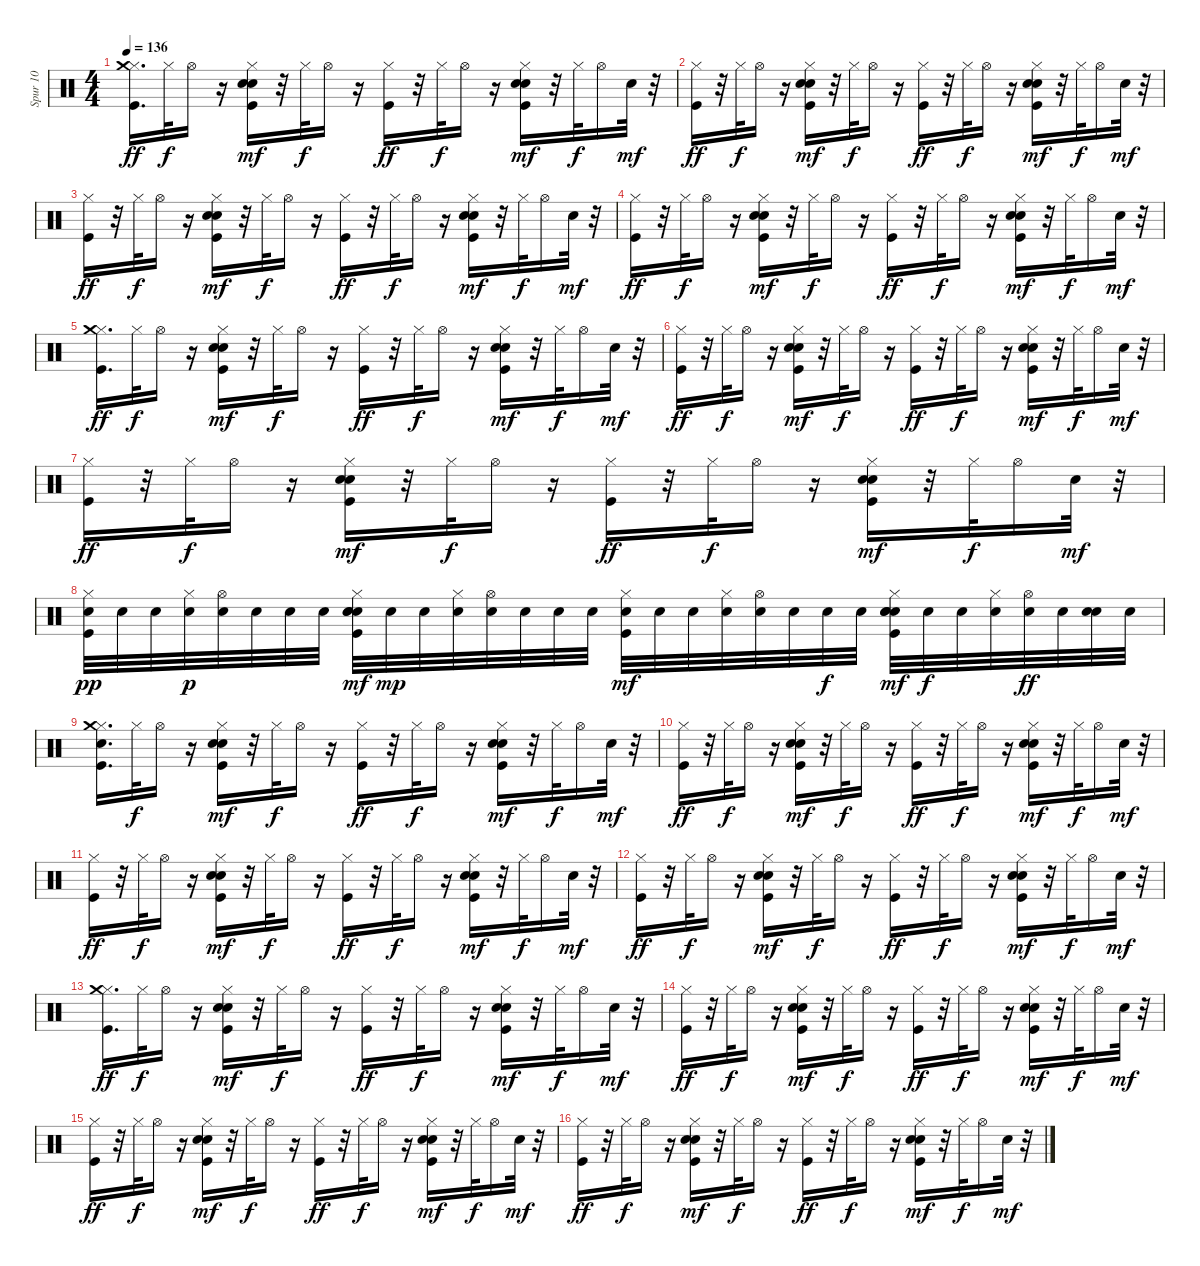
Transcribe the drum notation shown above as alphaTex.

\track ("Spur 10" "Spur 10") {instrument percussion}
\staff {score}
\articulation defaults
\ts (4 4)
\tempo 136
\clef neutral
\ks c
("Kick (hit)" "Hi-Hat (closed)" "Crash medium (hit)").16{d dy ff} "Hi-Hat (closed)".32{dy f} "Hi-Hat (open)".16 r.16 ("Kick (hit)" "Snare (hit) 2" "Hi-Hat (closed)" "Hand Clap (hit)").16{dy mf} r.32 "Hi-Hat (closed)".32{dy f} "Hi-Hat (open)".16 r.16 ("Kick (hit)" "Hi-Hat (closed)").16{dy ff} r.32 "Hi-Hat (closed)".32{dy f} "Hi-Hat (open)".16 r.16 ("Kick (hit)" "Snare (hit) 2" "Hi-Hat (closed)" "Hand Clap (hit)").16{dy mf} r.32 "Hi-Hat (closed)".32{dy f} "Hi-Hat (open)".16 "Snare (hit) 2".32{dy mf} r.32 |
("Kick (hit)" "Hi-Hat (closed)").16{dy ff} r.32 "Hi-Hat (closed)".32{dy f} "Hi-Hat (open)".16 r.16 ("Kick (hit)" "Snare (hit) 2" "Hi-Hat (closed)" "Hand Clap (hit)").16{dy mf} r.32 "Hi-Hat (closed)".32{dy f} "Hi-Hat (open)".16 r.16 ("Kick (hit)" "Hi-Hat (closed)").16{dy ff} r.32 "Hi-Hat (closed)".32{dy f} "Hi-Hat (open)".16 r.16 ("Kick (hit)" "Snare (hit) 2" "Hi-Hat (closed)" "Hand Clap (hit)").16{dy mf} r.32 "Hi-Hat (closed)".32{dy f} "Hi-Hat (open)".16 "Snare (hit) 2".32{dy mf} r.32 |
("Kick (hit)" "Hi-Hat (closed)").16{dy ff} r.32 "Hi-Hat (closed)".32{dy f} "Hi-Hat (open)".16 r.16 ("Kick (hit)" "Snare (hit) 2" "Hi-Hat (closed)" "Hand Clap (hit)").16{dy mf} r.32 "Hi-Hat (closed)".32{dy f} "Hi-Hat (open)".16 r.16 ("Kick (hit)" "Hi-Hat (closed)").16{dy ff} r.32 "Hi-Hat (closed)".32{dy f} "Hi-Hat (open)".16 r.16 ("Kick (hit)" "Snare (hit) 2" "Hi-Hat (closed)" "Hand Clap (hit)").16{dy mf} r.32 "Hi-Hat (closed)".32{dy f} "Hi-Hat (open)".16 "Snare (hit) 2".32{dy mf} r.32 |
("Kick (hit)" "Hi-Hat (closed)").16{dy ff} r.32 "Hi-Hat (closed)".32{dy f} "Hi-Hat (open)".16 r.16 ("Kick (hit)" "Snare (hit) 2" "Hi-Hat (closed)" "Hand Clap (hit)").16{dy mf} r.32 "Hi-Hat (closed)".32{dy f} "Hi-Hat (open)".16 r.16 ("Kick (hit)" "Hi-Hat (closed)").16{dy ff} r.32 "Hi-Hat (closed)".32{dy f} "Hi-Hat (open)".16 r.16 ("Kick (hit)" "Snare (hit) 2" "Hi-Hat (closed)" "Hand Clap (hit)").16{dy mf} r.32 "Hi-Hat (closed)".32{dy f} "Hi-Hat (open)".16 "Snare (hit) 2".32{dy mf} r.32 |
("Kick (hit)" "Hi-Hat (closed)" "Crash medium (hit)").16{d dy ff} "Hi-Hat (closed)".32{dy f} "Hi-Hat (open)".16 r.16 ("Kick (hit)" "Snare (hit) 2" "Hi-Hat (closed)" "Hand Clap (hit)").16{dy mf} r.32 "Hi-Hat (closed)".32{dy f} "Hi-Hat (open)".16 r.16 ("Kick (hit)" "Hi-Hat (closed)").16{dy ff} r.32 "Hi-Hat (closed)".32{dy f} "Hi-Hat (open)".16 r.16 ("Kick (hit)" "Snare (hit) 2" "Hi-Hat (closed)" "Hand Clap (hit)").16{dy mf} r.32 "Hi-Hat (closed)".32{dy f} "Hi-Hat (open)".16 "Snare (hit) 2".32{dy mf} r.32 |
("Kick (hit)" "Hi-Hat (closed)").16{dy ff} r.32 "Hi-Hat (closed)".32{dy f} "Hi-Hat (open)".16 r.16 ("Kick (hit)" "Snare (hit) 2" "Hi-Hat (closed)" "Hand Clap (hit)").16{dy mf} r.32 "Hi-Hat (closed)".32{dy f} "Hi-Hat (open)".16 r.16 ("Kick (hit)" "Hi-Hat (closed)").16{dy ff} r.32 "Hi-Hat (closed)".32{dy f} "Hi-Hat (open)".16 r.16 ("Kick (hit)" "Snare (hit) 2" "Hi-Hat (closed)" "Hand Clap (hit)").16{dy mf} r.32 "Hi-Hat (closed)".32{dy f} "Hi-Hat (open)".16 "Snare (hit) 2".32{dy mf} r.32 |
("Kick (hit)" "Hi-Hat (closed)").16{dy ff} r.32 "Hi-Hat (closed)".32{dy f} "Hi-Hat (open)".16 r.16 ("Kick (hit)" "Snare (hit) 2" "Hi-Hat (closed)" "Hand Clap (hit)").16{dy mf} r.32 "Hi-Hat (closed)".32{dy f} "Hi-Hat (open)".16 r.16 ("Kick (hit)" "Hi-Hat (closed)").16{dy ff} r.32 "Hi-Hat (closed)".32{dy f} "Hi-Hat (open)".16 r.16 ("Kick (hit)" "Snare (hit) 2" "Hi-Hat (closed)" "Hand Clap (hit)").16{dy mf} r.32 "Hi-Hat (closed)".32{dy f} "Hi-Hat (open)".16 "Snare (hit) 2".32{dy mf} r.32 |
("Kick (hit)" "Hi-Hat (closed)" "Snare (hit) 2").32{dy pp} "Snare (hit) 2".32 "Snare (hit) 2".32 ("Hi-Hat (closed)" "Snare (hit) 2").32{dy p} ("Hi-Hat (open)" "Snare (hit) 2").32 "Snare (hit) 2".32 "Snare (hit) 2".32 "Snare (hit) 2".32 ("Kick (hit)" "Snare (hit) 2" "Hi-Hat (closed)" "Snare (hit) 2" "Hand Clap (hit)").32{dy mf} "Snare (hit) 2".32{dy mp} "Snare (hit) 2".32 ("Hi-Hat (closed)" "Snare (hit) 2").32 ("Hi-Hat (open)" "Snare (hit) 2").32 "Snare (hit) 2".32 "Snare (hit) 2".32 "Snare (hit) 2".32 ("Kick (hit)" "Hi-Hat (closed)" "Snare (hit) 2").32{dy mf} "Snare (hit) 2".32 "Snare (hit) 2".32 ("Hi-Hat (closed)" "Snare (hit) 2").32 ("Hi-Hat (open)" "Snare (hit) 2").32 "Snare (hit) 2".32 "Snare (hit) 2".32{dy f} "Snare (hit) 2".32 ("Kick (hit)" "Snare (hit) 2" "Hi-Hat (closed)" "Snare (hit) 2" "Hand Clap (hit)").32{dy mf} "Snare (hit) 2".32{dy f} "Snare (hit) 2".32 ("Hi-Hat (closed)" "Snare (hit) 2").32 ("Hi-Hat (open)" "Snare (hit) 2").32{dy ff} "Snare (hit) 2".32 ("Snare (hit) 2" "Snare (hit) 2").32 "Snare (hit) 2".32 |
("Kick (hit)" "Hi-Hat (closed)" "Crash medium (hit)" "Snare (hit) 2").16{d} "Hi-Hat (closed)".32{dy f} "Hi-Hat (open)".16 r.16 ("Kick (hit)" "Snare (hit) 2" "Hi-Hat (closed)" "Hand Clap (hit)").16{dy mf} r.32 "Hi-Hat (closed)".32{dy f} "Hi-Hat (open)".16 r.16 ("Kick (hit)" "Hi-Hat (closed)").16{dy ff} r.32 "Hi-Hat (closed)".32{dy f} "Hi-Hat (open)".16 r.16 ("Kick (hit)" "Snare (hit) 2" "Hi-Hat (closed)" "Hand Clap (hit)").16{dy mf} r.32 "Hi-Hat (closed)".32{dy f} "Hi-Hat (open)".16 "Snare (hit) 2".32{dy mf} r.32 |
("Kick (hit)" "Hi-Hat (closed)").16{dy ff} r.32 "Hi-Hat (closed)".32{dy f} "Hi-Hat (open)".16 r.16 ("Kick (hit)" "Snare (hit) 2" "Hi-Hat (closed)" "Hand Clap (hit)").16{dy mf} r.32 "Hi-Hat (closed)".32{dy f} "Hi-Hat (open)".16 r.16 ("Kick (hit)" "Hi-Hat (closed)").16{dy ff} r.32 "Hi-Hat (closed)".32{dy f} "Hi-Hat (open)".16 r.16 ("Kick (hit)" "Snare (hit) 2" "Hi-Hat (closed)" "Hand Clap (hit)").16{dy mf} r.32 "Hi-Hat (closed)".32{dy f} "Hi-Hat (open)".16 "Snare (hit) 2".32{dy mf} r.32 |
("Kick (hit)" "Hi-Hat (closed)").16{dy ff} r.32 "Hi-Hat (closed)".32{dy f} "Hi-Hat (open)".16 r.16 ("Kick (hit)" "Snare (hit) 2" "Hi-Hat (closed)" "Hand Clap (hit)").16{dy mf} r.32 "Hi-Hat (closed)".32{dy f} "Hi-Hat (open)".16 r.16 ("Kick (hit)" "Hi-Hat (closed)").16{dy ff} r.32 "Hi-Hat (closed)".32{dy f} "Hi-Hat (open)".16 r.16 ("Kick (hit)" "Snare (hit) 2" "Hi-Hat (closed)" "Hand Clap (hit)").16{dy mf} r.32 "Hi-Hat (closed)".32{dy f} "Hi-Hat (open)".16 "Snare (hit) 2".32{dy mf} r.32 |
("Kick (hit)" "Hi-Hat (closed)").16{dy ff} r.32 "Hi-Hat (closed)".32{dy f} "Hi-Hat (open)".16 r.16 ("Kick (hit)" "Snare (hit) 2" "Hi-Hat (closed)" "Hand Clap (hit)").16{dy mf} r.32 "Hi-Hat (closed)".32{dy f} "Hi-Hat (open)".16 r.16 ("Kick (hit)" "Hi-Hat (closed)").16{dy ff} r.32 "Hi-Hat (closed)".32{dy f} "Hi-Hat (open)".16 r.16 ("Kick (hit)" "Snare (hit) 2" "Hi-Hat (closed)" "Hand Clap (hit)").16{dy mf} r.32 "Hi-Hat (closed)".32{dy f} "Hi-Hat (open)".16 "Snare (hit) 2".32{dy mf} r.32 |
("Kick (hit)" "Hi-Hat (closed)" "Crash medium (hit)").16{d dy ff} "Hi-Hat (closed)".32{dy f} "Hi-Hat (open)".16 r.16 ("Kick (hit)" "Snare (hit) 2" "Hi-Hat (closed)" "Hand Clap (hit)").16{dy mf} r.32 "Hi-Hat (closed)".32{dy f} "Hi-Hat (open)".16 r.16 ("Kick (hit)" "Hi-Hat (closed)").16{dy ff} r.32 "Hi-Hat (closed)".32{dy f} "Hi-Hat (open)".16 r.16 ("Kick (hit)" "Snare (hit) 2" "Hi-Hat (closed)" "Hand Clap (hit)").16{dy mf} r.32 "Hi-Hat (closed)".32{dy f} "Hi-Hat (open)".16 "Snare (hit) 2".32{dy mf} r.32 |
("Kick (hit)" "Hi-Hat (closed)").16{dy ff} r.32 "Hi-Hat (closed)".32{dy f} "Hi-Hat (open)".16 r.16 ("Kick (hit)" "Snare (hit) 2" "Hi-Hat (closed)" "Hand Clap (hit)").16{dy mf} r.32 "Hi-Hat (closed)".32{dy f} "Hi-Hat (open)".16 r.16 ("Kick (hit)" "Hi-Hat (closed)").16{dy ff} r.32 "Hi-Hat (closed)".32{dy f} "Hi-Hat (open)".16 r.16 ("Kick (hit)" "Snare (hit) 2" "Hi-Hat (closed)" "Hand Clap (hit)").16{dy mf} r.32 "Hi-Hat (closed)".32{dy f} "Hi-Hat (open)".16 "Snare (hit) 2".32{dy mf} r.32 |
("Kick (hit)" "Hi-Hat (closed)").16{dy ff} r.32 "Hi-Hat (closed)".32{dy f} "Hi-Hat (open)".16 r.16 ("Kick (hit)" "Snare (hit) 2" "Hi-Hat (closed)" "Hand Clap (hit)").16{dy mf} r.32 "Hi-Hat (closed)".32{dy f} "Hi-Hat (open)".16 r.16 ("Kick (hit)" "Hi-Hat (closed)").16{dy ff} r.32 "Hi-Hat (closed)".32{dy f} "Hi-Hat (open)".16 r.16 ("Kick (hit)" "Snare (hit) 2" "Hi-Hat (closed)" "Hand Clap (hit)").16{dy mf} r.32 "Hi-Hat (closed)".32{dy f} "Hi-Hat (open)".16 "Snare (hit) 2".32{dy mf} r.32 |
("Kick (hit)" "Hi-Hat (closed)").16{dy ff} r.32 "Hi-Hat (closed)".32{dy f} "Hi-Hat (open)".16 r.16 ("Kick (hit)" "Snare (hit) 2" "Hi-Hat (closed)" "Hand Clap (hit)").16{dy mf} r.32 "Hi-Hat (closed)".32{dy f} "Hi-Hat (open)".16 r.16 ("Kick (hit)" "Hi-Hat (closed)").16{dy ff} r.32 "Hi-Hat (closed)".32{dy f} "Hi-Hat (open)".16 r.16 ("Kick (hit)" "Snare (hit) 2" "Hi-Hat (closed)" "Hand Clap (hit)").16{dy mf} r.32 "Hi-Hat (closed)".32{dy f} "Hi-Hat (open)".16 "Snare (hit) 2".32{dy mf} r.32
